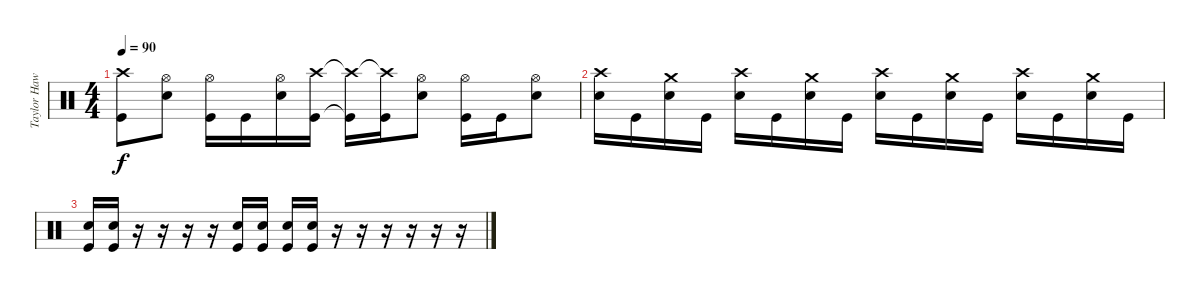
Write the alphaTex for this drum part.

\track ("Taylor Hawkins - Drums" "Taylor Haw") {instrument percussion}
\staff {score}
\articulation defaults
\ts (4 4)
\tempo 90
\clef neutral
\ks c
("Crash high (hit)" "Kick (hit)").8{dy f} ("Hi-Hat (open)" "Snare (hit) 2").8 ("Hi-Hat (open)" "Kick (hit)").16 "Kick (hit)".16 ("Hi-Hat (open)" "Snare (hit) 2").16 ("Crash high (hit)" "Kick (hit)").16 ("Crash high (hit)"{t} "Kick (hit)"{t}).16 ("Crash high (hit)"{t} "Kick (hit)").16 ("Hi-Hat (open)" "Snare (hit) 2").8 ("Hi-Hat (open)" "Kick (hit)").16 "Kick (hit)".16 ("Hi-Hat (open)" "Snare (hit) 2").8 |
("Crash high (hit)" "Electric Snare (hit)").16 "Kick (hit)".16 ("Crash medium (hit)" "Electric Snare (hit)").16 "Kick (hit)".16 ("Crash high (hit)" "Electric Snare (hit)").16 "Kick (hit)".16 ("Crash medium (hit)" "Electric Snare (hit)").16 "Kick (hit)".16 ("Crash high (hit)" "Electric Snare (hit)").16 "Kick (hit)".16 ("Crash medium (hit)" "Electric Snare (hit)").16 "Kick (hit)".16 ("Crash high (hit)" "Electric Snare (hit)").16 "Kick (hit)".16 ("Crash medium (hit)" "Electric Snare (hit)").16 "Kick (hit)".16 |
("Electric Snare (hit)" "Kick (hit)").16 ("Electric Snare (hit)" "Kick (hit)").16 r.16 r.16 r.16 r.16 ("Electric Snare (hit)" "Kick (hit)").16 ("Electric Snare (hit)" "Kick (hit)").16 ("Electric Snare (hit)" "Kick (hit)").16 ("Electric Snare (hit)" "Kick (hit)").16 r.16 r.16 r.16 r.16 r.16 r.16
